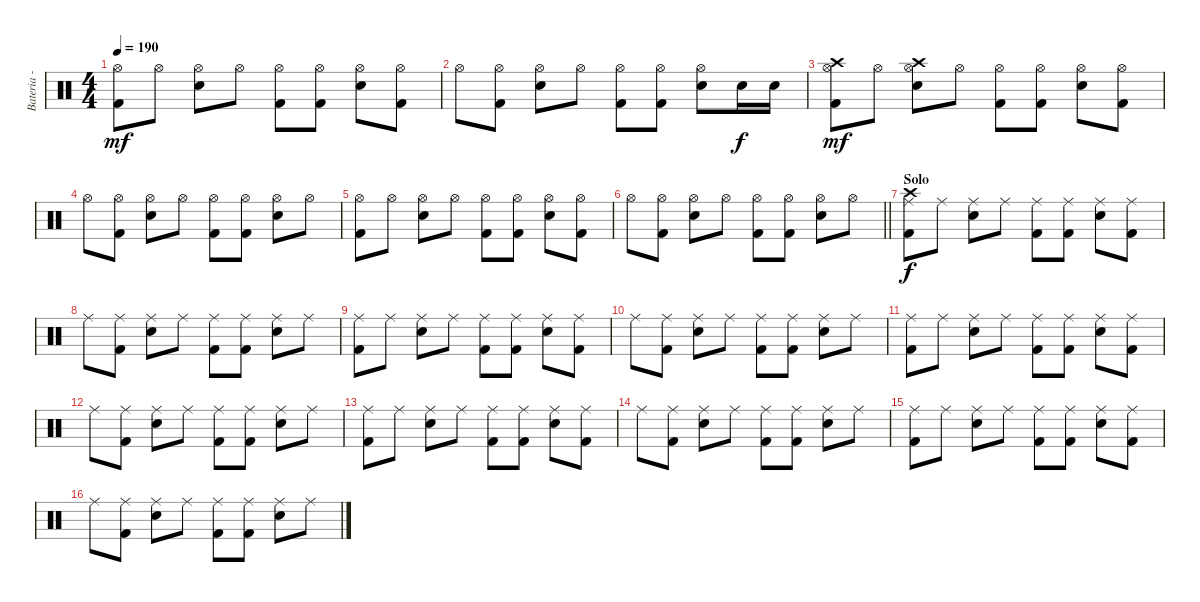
\track ("Bateria - Larzon" "Bateria - ") {instrument percussion}
\staff {score}
\articulation defaults
\ts (4 4)
\tempo 190
\clef neutral
\ks c
("Kick (hit) 2" "Hi-Hat (open)").8{dy mf} "Hi-Hat (open)".8 ("Electric Snare (hit)" "Hi-Hat (open)").8 "Hi-Hat (open)".8 ("Kick (hit) 2" "Hi-Hat (open)").8 ("Kick (hit) 2" "Hi-Hat (open)").8 ("Electric Snare (hit)" "Hi-Hat (open)").8 ("Kick (hit) 2" "Hi-Hat (open)").8 |
"Hi-Hat (open)".8 ("Kick (hit) 2" "Hi-Hat (open)").8 ("Electric Snare (hit)" "Hi-Hat (open)").8 "Hi-Hat (open)".8 ("Kick (hit) 2" "Hi-Hat (open)").8 ("Kick (hit) 2" "Hi-Hat (open)").8 ("Electric Snare (hit)" "Hi-Hat (open)").8 "Electric Snare (hit)".16{dy f} "Electric Snare (hit)".16 |
("Kick (hit) 2" "Hi-Hat (open)" "Crash high (hit)").8{dy mf} "Hi-Hat (open)".8 ("Electric Snare (hit)" "Hi-Hat (open)" "Crash high (hit)").8 "Hi-Hat (open)".8 ("Kick (hit) 2" "Hi-Hat (open)").8 ("Kick (hit) 2" "Hi-Hat (open)").8 ("Electric Snare (hit)" "Hi-Hat (open)").8 ("Kick (hit) 2" "Hi-Hat (open)").8 |
"Hi-Hat (open)".8 ("Kick (hit) 2" "Hi-Hat (open)").8 ("Electric Snare (hit)" "Hi-Hat (open)").8 "Hi-Hat (open)".8 ("Kick (hit) 2" "Hi-Hat (open)").8 ("Kick (hit) 2" "Hi-Hat (open)").8 ("Electric Snare (hit)" "Hi-Hat (open)").8 "Hi-Hat (open)".8 |
("Kick (hit) 2" "Hi-Hat (open)").8 "Hi-Hat (open)".8 ("Electric Snare (hit)" "Hi-Hat (open)").8 "Hi-Hat (open)".8 ("Kick (hit) 2" "Hi-Hat (open)").8 ("Kick (hit) 2" "Hi-Hat (open)").8 ("Electric Snare (hit)" "Hi-Hat (open)").8 ("Kick (hit) 2" "Hi-Hat (open)").8 |
\barLineRight lightlight "Hi-Hat (open)".8
("Kick (hit) 2" "Hi-Hat (open)").8 ("Electric Snare (hit)" "Hi-Hat (open)").8 "Hi-Hat (open)".8 ("Kick (hit) 2" "Hi-Hat (open)").8 ("Kick (hit) 2" "Hi-Hat (open)").8 ("Electric Snare (hit)" "Hi-Hat (open)").8 "Hi-Hat (open)".8 |
\section ("" "Solo")
("Kick (hit) 2" "Ride (middle)" "Crash high (hit)").8{dy f} "Ride (middle)".8 ("Electric Snare (hit)" "Ride (middle)").8 "Ride (middle)".8 ("Kick (hit) 2" "Ride (middle)").8 ("Kick (hit) 2" "Ride (middle)").8 ("Electric Snare (hit)" "Ride (middle)").8 ("Kick (hit) 2" "Ride (middle)").8 |
"Ride (middle)".8 ("Kick (hit) 2" "Ride (middle)").8 ("Electric Snare (hit)" "Ride (middle)").8 "Ride (middle)".8 ("Kick (hit) 2" "Ride (middle)").8 ("Kick (hit) 2" "Ride (middle)").8 ("Electric Snare (hit)" "Ride (middle)").8 "Ride (middle)".8 |
("Kick (hit) 2" "Ride (middle)").8 "Ride (middle)".8 ("Electric Snare (hit)" "Ride (middle)").8 "Ride (middle)".8 ("Kick (hit) 2" "Ride (middle)").8 ("Kick (hit) 2" "Ride (middle)").8 ("Electric Snare (hit)" "Ride (middle)").8 ("Kick (hit) 2" "Ride (middle)").8 |
"Ride (middle)".8 ("Kick (hit) 2" "Ride (middle)").8 ("Electric Snare (hit)" "Ride (middle)").8 "Ride (middle)".8 ("Kick (hit) 2" "Ride (middle)").8 ("Kick (hit) 2" "Ride (middle)").8 ("Electric Snare (hit)" "Ride (middle)").8 "Ride (middle)".8 |
("Kick (hit) 2" "Ride (middle)").8 "Ride (middle)".8 ("Electric Snare (hit)" "Ride (middle)").8 "Ride (middle)".8 ("Kick (hit) 2" "Ride (middle)").8 ("Kick (hit) 2" "Ride (middle)").8 ("Electric Snare (hit)" "Ride (middle)").8 ("Kick (hit) 2" "Ride (middle)").8 |
"Ride (middle)".8 ("Kick (hit) 2" "Ride (middle)").8 ("Electric Snare (hit)" "Ride (middle)").8 "Ride (middle)".8 ("Kick (hit) 2" "Ride (middle)").8 ("Kick (hit) 2" "Ride (middle)").8 ("Electric Snare (hit)" "Ride (middle)").8 "Ride (middle)".8 |
("Kick (hit) 2" "Ride (middle)").8 "Ride (middle)".8 ("Electric Snare (hit)" "Ride (middle)").8 "Ride (middle)".8 ("Kick (hit) 2" "Ride (middle)").8 ("Kick (hit) 2" "Ride (middle)").8 ("Electric Snare (hit)" "Ride (middle)").8 ("Kick (hit) 2" "Ride (middle)").8 |
"Ride (middle)".8 ("Kick (hit) 2" "Ride (middle)").8 ("Electric Snare (hit)" "Ride (middle)").8 "Ride (middle)".8 ("Kick (hit) 2" "Ride (middle)").8 ("Kick (hit) 2" "Ride (middle)").8 ("Electric Snare (hit)" "Ride (middle)").8 "Ride (middle)".8 |
("Kick (hit) 2" "Ride (middle)").8 "Ride (middle)".8 ("Electric Snare (hit)" "Ride (middle)").8 "Ride (middle)".8 ("Kick (hit) 2" "Ride (middle)").8 ("Kick (hit) 2" "Ride (middle)").8 ("Electric Snare (hit)" "Ride (middle)").8 ("Kick (hit) 2" "Ride (middle)").8 |
"Ride (middle)".8 ("Kick (hit) 2" "Ride (middle)").8 ("Electric Snare (hit)" "Ride (middle)").8 "Ride (middle)".8 ("Kick (hit) 2" "Ride (middle)").8 ("Kick (hit) 2" "Ride (middle)").8 ("Electric Snare (hit)" "Ride (middle)").8 "Ride (middle)".8
